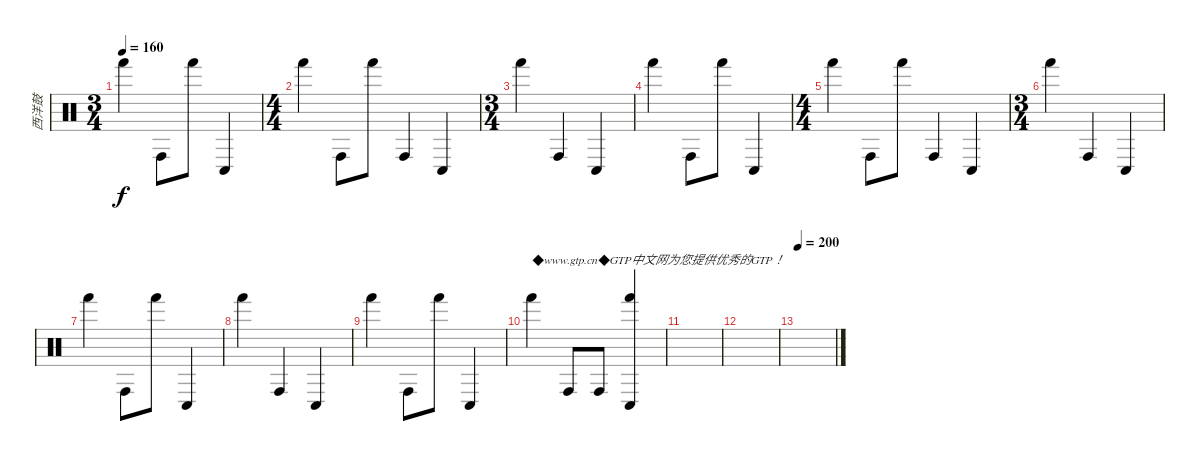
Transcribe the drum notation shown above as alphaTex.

\track ("西洋鼓" "西洋鼓") {instrument percussion}
\staff {score}
\articulation defaults
\ts (3 4)
\tempo 160
\clef neutral
\ks c "Hand (hit)".4{dy f} "Conga high (hit)".8 "Hand (hit)".8 "Conga low (hit)".4
|
\ts (4 4)
"Hand (hit)".4 "Conga high (hit)".8 "Hand (hit)".8 "Conga high (hit)".4 "Conga low (hit)".4 |
\ts (3 4)
"Hand (hit)".4 "Conga high (hit)".4 "Conga low (hit)".4 |
"Hand (hit)".4 "Conga high (hit)".8 "Hand (hit)".8 "Conga low (hit)".4 |
\ts (4 4)
"Hand (hit)".4 "Conga high (hit)".8 "Hand (hit)".8 "Conga high (hit)".4 "Conga low (hit)".4 |
\ts (3 4)
"Hand (hit)".4 "Conga high (hit)".4 "Conga low (hit)".4 |
"Hand (hit)".4 "Conga high (hit)".8 "Hand (hit)".8 "Conga low (hit)".4 |
"Hand (hit)".4 "Conga high (hit)".4 "Conga low (hit)".4 |
"Hand (hit)".4 "Conga high (hit)".8 "Hand (hit)".8 "Conga low (hit)".4 |
"Hand (hit)".4{txt "◆www.gtp.cn◆GTP中文网为您提供优秀的GTP！"} "Conga high (hit)".8 "Conga high (hit)".8 ("Hand (hit)" "Conga low (hit)").4 |
|
|
\tempo 200
